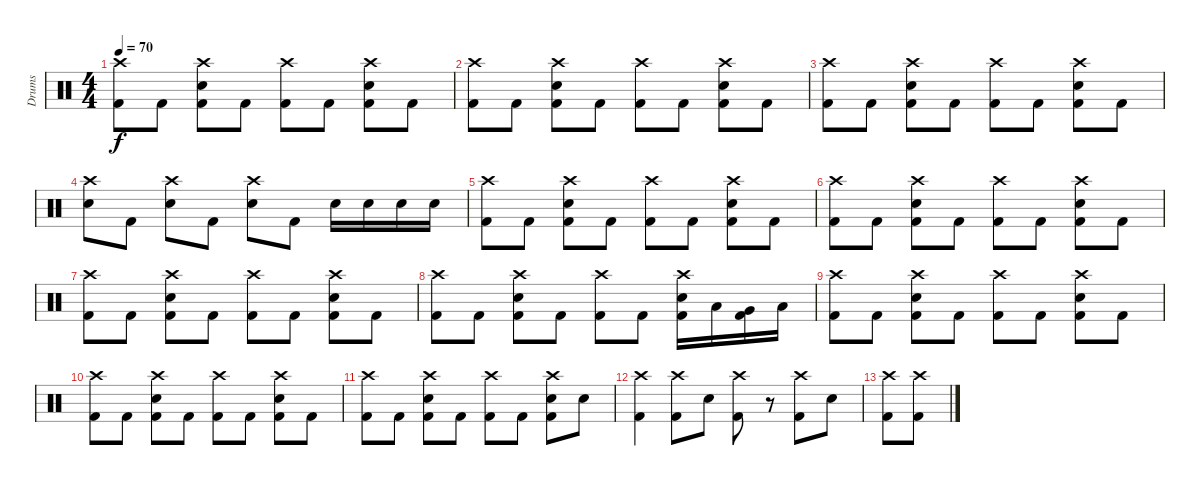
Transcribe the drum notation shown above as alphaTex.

\track ("Drums" "Drums") {instrument percussion}
\staff {score}
\articulation defaults
\ts (4 4)
\tempo 70
\clef neutral
\ks c
("Crash high (hit)" "Kick (hit) 2").8{dy f} "Kick (hit) 2".8 ("Crash high (hit)" "Snare (hit) 2" "Kick (hit) 2").8 "Kick (hit) 2".8 ("Crash high (hit)" "Kick (hit) 2").8 "Kick (hit) 2".8 ("Crash high (hit)" "Snare (hit) 2" "Kick (hit) 2").8 "Kick (hit) 2".8 |
("Crash high (hit)" "Kick (hit) 2").8 "Kick (hit) 2".8 ("Crash high (hit)" "Snare (hit) 2" "Kick (hit) 2").8 "Kick (hit) 2".8 ("Crash high (hit)" "Kick (hit) 2").8 "Kick (hit) 2".8 ("Crash high (hit)" "Snare (hit) 2" "Kick (hit) 2").8 "Kick (hit) 2".8 |
("Crash high (hit)" "Kick (hit) 2").8 "Kick (hit) 2".8 ("Crash high (hit)" "Snare (hit) 2" "Kick (hit) 2").8 "Kick (hit) 2".8 ("Crash high (hit)" "Kick (hit) 2").8 "Kick (hit) 2".8 ("Crash high (hit)" "Snare (hit) 2" "Kick (hit) 2").8 "Kick (hit) 2".8 |
("Crash high (hit)" "Snare (hit) 2").8 "Kick (hit) 2".8 ("Crash high (hit)" "Snare (hit) 2").8 "Kick (hit) 2".8 ("Crash high (hit)" "Snare (hit) 2").8 "Kick (hit) 2".8 "Snare (hit) 2".16 "Snare (hit) 2".16 "Snare (hit) 2".16 "Snare (hit) 2".16 |
("Crash high (hit)" "Kick (hit) 2").8 "Kick (hit) 2".8 ("Crash high (hit)" "Snare (hit) 2" "Kick (hit) 2").8 "Kick (hit) 2".8 ("Crash high (hit)" "Kick (hit) 2").8 "Kick (hit) 2".8 ("Crash high (hit)" "Snare (hit) 2" "Kick (hit) 2").8 "Kick (hit) 2".8 |
("Crash high (hit)" "Kick (hit) 2").8 "Kick (hit) 2".8 ("Crash high (hit)" "Snare (hit) 2" "Kick (hit) 2").8 "Kick (hit) 2".8 ("Crash high (hit)" "Kick (hit) 2").8 "Kick (hit) 2".8 ("Crash high (hit)" "Snare (hit) 2" "Kick (hit) 2").8 "Kick (hit) 2".8 |
("Crash high (hit)" "Kick (hit) 2").8 "Kick (hit) 2".8 ("Crash high (hit)" "Snare (hit) 2" "Kick (hit) 2").8 "Kick (hit) 2".8 ("Crash high (hit)" "Kick (hit) 2").8 "Kick (hit) 2".8 ("Crash high (hit)" "Snare (hit) 2" "Kick (hit) 2").8 "Kick (hit) 2".8 |
("Crash high (hit)" "Kick (hit) 2").8 "Kick (hit) 2".8 ("Crash high (hit)" "Snare (hit) 2" "Kick (hit) 2").8 "Kick (hit) 2".8 ("Crash high (hit)" "Kick (hit) 2").8 "Kick (hit) 2".8 ("Crash high (hit)" "Snare (hit) 2" "Kick (hit) 2").16 "Low Tom (hit)".16 ("Very Low Tom (hit)" "Kick (hit) 2").16 "Low Floor Tom (hit)".16 |
("Crash high (hit)" "Kick (hit) 2").8 "Kick (hit) 2".8 ("Crash high (hit)" "Snare (hit) 2" "Kick (hit) 2").8 "Kick (hit) 2".8 ("Crash high (hit)" "Kick (hit) 2").8 "Kick (hit) 2".8 ("Crash high (hit)" "Snare (hit) 2" "Kick (hit) 2").8 "Kick (hit) 2".8 |
("Crash high (hit)" "Kick (hit) 2").8 "Kick (hit) 2".8 ("Crash high (hit)" "Snare (hit) 2" "Kick (hit) 2").8 "Kick (hit) 2".8 ("Crash high (hit)" "Kick (hit) 2").8 "Kick (hit) 2".8 ("Crash high (hit)" "Snare (hit) 2" "Kick (hit) 2").8 "Kick (hit) 2".8 |
("Crash high (hit)" "Kick (hit) 2").8 "Kick (hit) 2".8 ("Crash high (hit)" "Snare (hit) 2" "Kick (hit) 2").8 "Kick (hit) 2".8 ("Crash high (hit)" "Kick (hit) 2").8 "Kick (hit) 2".8 ("Crash high (hit)" "Snare (hit) 2" "Kick (hit) 2").8 "Snare (hit) 2".8 |
("Crash high (hit)" "Kick (hit) 2").4 ("Crash high (hit)" "Kick (hit) 2").8 "Snare (hit) 2".8 ("Crash high (hit)" "Kick (hit) 2").8 r.8 ("Crash high (hit)" "Kick (hit) 2").8 "Snare (hit) 2".8 |
("Crash high (hit)" "Kick (hit) 2").8 ("Crash high (hit)" "Kick (hit) 2").8
